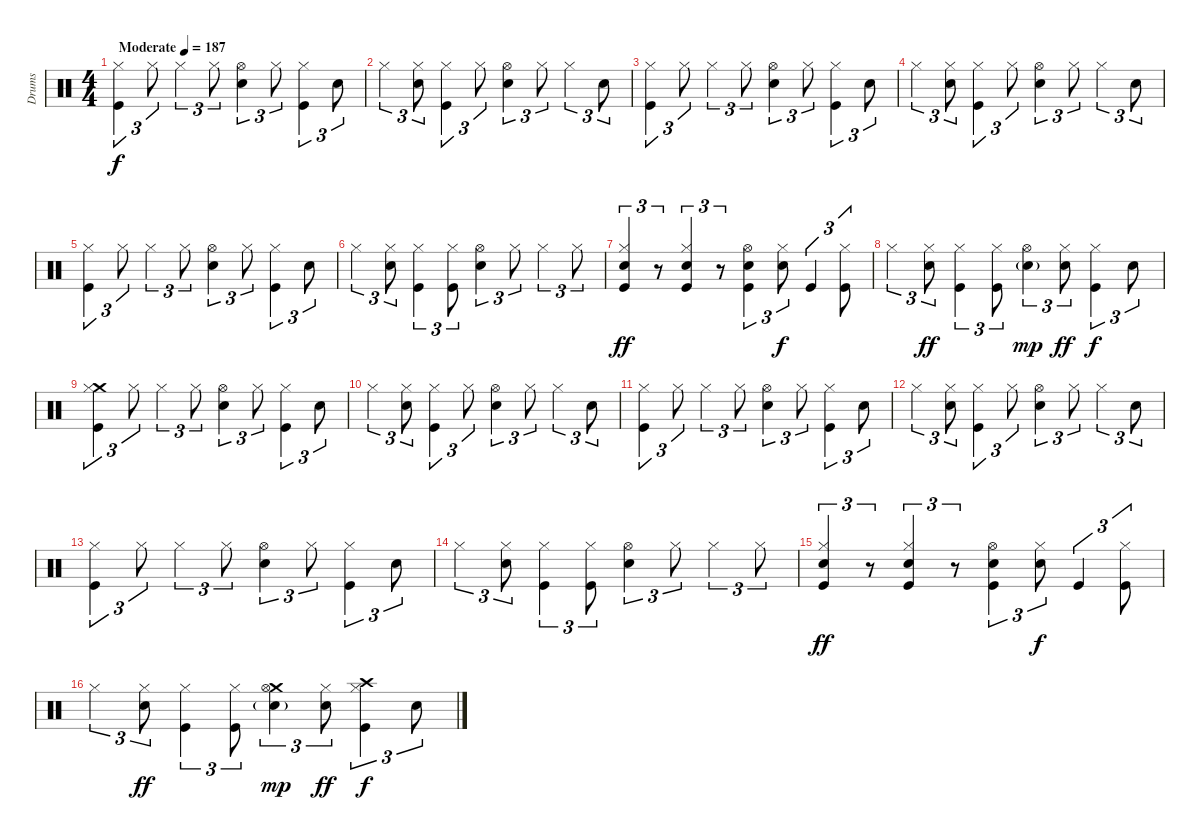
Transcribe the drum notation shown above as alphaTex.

\track ("Drums" "Drums") {instrument percussion}
\staff {score}
\articulation defaults
\ts (4 4)
\tempo (187 "Moderate")
\clef neutral
\ks c
("Kick (hit)" "Hi-Hat (closed)").4{tu (3 2) dy f} "Hi-Hat (closed)".8{tu (3 2)} "Hi-Hat (closed)".4{tu (3 2)} "Hi-Hat (closed)".8{tu (3 2)} ("Snare (hit) 2" "Hi-Hat (open)").4{tu (3 2)} "Hi-Hat (closed)".8{tu (3 2)} ("Kick (hit)" "Hi-Hat (closed)").4{tu (3 2)} "Snare (hit) 2".8{tu (3 2)} |
"Hi-Hat (closed)".4{tu (3 2)} ("Snare (hit) 2" "Hi-Hat (closed)").8{tu (3 2)} ("Kick (hit)" "Hi-Hat (closed)").4{tu (3 2)} "Hi-Hat (closed)".8{tu (3 2)} ("Snare (hit) 2" "Hi-Hat (open)").4{tu (3 2)} "Hi-Hat (closed)".8{tu (3 2)} "Hi-Hat (closed)".4{tu (3 2)} "Snare (hit) 2".8{tu (3 2)} |
("Kick (hit)" "Hi-Hat (closed)").4{tu (3 2)} "Hi-Hat (closed)".8{tu (3 2)} "Hi-Hat (closed)".4{tu (3 2)} "Hi-Hat (closed)".8{tu (3 2)} ("Snare (hit) 2" "Hi-Hat (open)").4{tu (3 2)} "Hi-Hat (closed)".8{tu (3 2)} ("Kick (hit)" "Hi-Hat (closed)").4{tu (3 2)} "Snare (hit) 2".8{tu (3 2)} |
"Hi-Hat (closed)".4{tu (3 2)} ("Snare (hit) 2" "Hi-Hat (closed)").8{tu (3 2)} ("Kick (hit)" "Hi-Hat (closed)").4{tu (3 2)} "Hi-Hat (closed)".8{tu (3 2)} ("Snare (hit) 2" "Hi-Hat (open)").4{tu (3 2)} "Hi-Hat (closed)".8{tu (3 2)} "Hi-Hat (closed)".4{tu (3 2)} "Snare (hit) 2".8{tu (3 2)} |
("Kick (hit)" "Hi-Hat (closed)").4{tu (3 2)} "Hi-Hat (closed)".8{tu (3 2)} "Hi-Hat (closed)".4{tu (3 2)} "Hi-Hat (closed)".8{tu (3 2)} ("Snare (hit) 2" "Hi-Hat (open)").4{tu (3 2)} "Hi-Hat (closed)".8{tu (3 2)} ("Kick (hit)" "Hi-Hat (closed)").4{tu (3 2)} "Snare (hit) 2".8{tu (3 2)} |
"Hi-Hat (closed)".4{tu (3 2)} ("Snare (hit) 2" "Hi-Hat (closed)").8{tu (3 2)} ("Kick (hit)" "Hi-Hat (closed)").4{tu (3 2)} ("Kick (hit)" "Hi-Hat (closed)").8{tu (3 2)} ("Snare (hit) 2" "Hi-Hat (open)").4{tu (3 2)} "Hi-Hat (closed)".8{tu (3 2)} "Hi-Hat (closed)".4{tu (3 2)} "Hi-Hat (closed)".8{tu (3 2)} |
("Kick (hit)" "Snare (hit) 2" "Hi-Hat (closed)").4{tu (3 2) dy ff} r.8{tu (3 2)} ("Kick (hit)" "Snare (hit) 2" "Hi-Hat (closed)").4{tu (3 2)} r.8{tu (3 2)} ("Kick (hit)" "Snare (hit) 2" "Hi-Hat (open)").4{tu (3 2)} ("Snare (hit) 2" "Hi-Hat (closed)").8{tu (3 2) dy f} "Kick (hit)".4{tu (3 2)} ("Kick (hit)" "Hi-Hat (closed)").8{tu (3 2)} |
"Hi-Hat (closed)".4{tu (3 2)} ("Snare (hit) 2" "Hi-Hat (closed)").8{tu (3 2) dy ff} ("Kick (hit)" "Hi-Hat (closed)").4{tu (3 2)} ("Kick (hit)" "Hi-Hat (closed)").8{tu (3 2)} ("Snare (hit) 2"{g} "Hi-Hat (open)").4{tu (3 2) dy mp} ("Snare (hit) 2" "Hi-Hat (closed)").8{tu (3 2) dy ff} ("Kick (hit)" "Hi-Hat (closed)").4{tu (3 2) dy f} "Snare (hit) 2".8{tu (3 2)} |
("Kick (hit)" "Crash medium (hit)" "Hi-Hat (closed)").4{tu (3 2)} "Hi-Hat (closed)".8{tu (3 2)} "Hi-Hat (closed)".4{tu (3 2)} "Hi-Hat (closed)".8{tu (3 2)} ("Snare (hit) 2" "Hi-Hat (open)").4{tu (3 2)} "Hi-Hat (closed)".8{tu (3 2)} ("Kick (hit)" "Hi-Hat (closed)").4{tu (3 2)} "Snare (hit) 2".8{tu (3 2)} |
"Hi-Hat (closed)".4{tu (3 2)} ("Snare (hit) 2" "Hi-Hat (closed)").8{tu (3 2)} ("Kick (hit)" "Hi-Hat (closed)").4{tu (3 2)} "Hi-Hat (closed)".8{tu (3 2)} ("Snare (hit) 2" "Hi-Hat (open)").4{tu (3 2)} "Hi-Hat (closed)".8{tu (3 2)} "Hi-Hat (closed)".4{tu (3 2)} "Snare (hit) 2".8{tu (3 2)} |
("Kick (hit)" "Hi-Hat (closed)").4{tu (3 2)} "Hi-Hat (closed)".8{tu (3 2)} "Hi-Hat (closed)".4{tu (3 2)} "Hi-Hat (closed)".8{tu (3 2)} ("Snare (hit) 2" "Hi-Hat (open)").4{tu (3 2)} "Hi-Hat (closed)".8{tu (3 2)} ("Kick (hit)" "Hi-Hat (closed)").4{tu (3 2)} "Snare (hit) 2".8{tu (3 2)} |
"Hi-Hat (closed)".4{tu (3 2)} ("Snare (hit) 2" "Hi-Hat (closed)").8{tu (3 2)} ("Kick (hit)" "Hi-Hat (closed)").4{tu (3 2)} "Hi-Hat (closed)".8{tu (3 2)} ("Snare (hit) 2" "Hi-Hat (open)").4{tu (3 2)} "Hi-Hat (closed)".8{tu (3 2)} "Hi-Hat (closed)".4{tu (3 2)} "Snare (hit) 2".8{tu (3 2)} |
("Kick (hit)" "Hi-Hat (closed)").4{tu (3 2)} "Hi-Hat (closed)".8{tu (3 2)} "Hi-Hat (closed)".4{tu (3 2)} "Hi-Hat (closed)".8{tu (3 2)} ("Snare (hit) 2" "Hi-Hat (open)").4{tu (3 2)} "Hi-Hat (closed)".8{tu (3 2)} ("Kick (hit)" "Hi-Hat (closed)").4{tu (3 2)} "Snare (hit) 2".8{tu (3 2)} |
"Hi-Hat (closed)".4{tu (3 2)} ("Snare (hit) 2" "Hi-Hat (closed)").8{tu (3 2)} ("Kick (hit)" "Hi-Hat (closed)").4{tu (3 2)} ("Kick (hit)" "Hi-Hat (closed)").8{tu (3 2)} ("Snare (hit) 2" "Hi-Hat (open)").4{tu (3 2)} "Hi-Hat (closed)".8{tu (3 2)} "Hi-Hat (closed)".4{tu (3 2)} "Hi-Hat (closed)".8{tu (3 2)} |
("Kick (hit)" "Snare (hit) 2" "Hi-Hat (closed)").4{tu (3 2) dy ff} r.8{tu (3 2)} ("Kick (hit)" "Snare (hit) 2" "Hi-Hat (closed)").4{tu (3 2)} r.8{tu (3 2)} ("Kick (hit)" "Snare (hit) 2" "Hi-Hat (open)").4{tu (3 2)} ("Snare (hit) 2" "Hi-Hat (closed)").8{tu (3 2) dy f} "Kick (hit)".4{tu (3 2)} ("Kick (hit)" "Hi-Hat (closed)").8{tu (3 2)} |
"Hi-Hat (closed)".4{tu (3 2)} ("Snare (hit) 2" "Hi-Hat (closed)").8{tu (3 2) dy ff} ("Kick (hit)" "Hi-Hat (closed)").4{tu (3 2)} ("Kick (hit)" "Hi-Hat (closed)").8{tu (3 2)} ("Crash medium (hit)" "Snare (hit) 2"{g} "Hi-Hat (open)").4{tu (3 2) dy mp} ("Snare (hit) 2" "Hi-Hat (closed)").8{tu (3 2) dy ff} ("Kick (hit)" "Crash high (hit)" "Hi-Hat (closed)").4{tu (3 2) dy f} "Snare (hit) 2".8{tu (3 2)}
